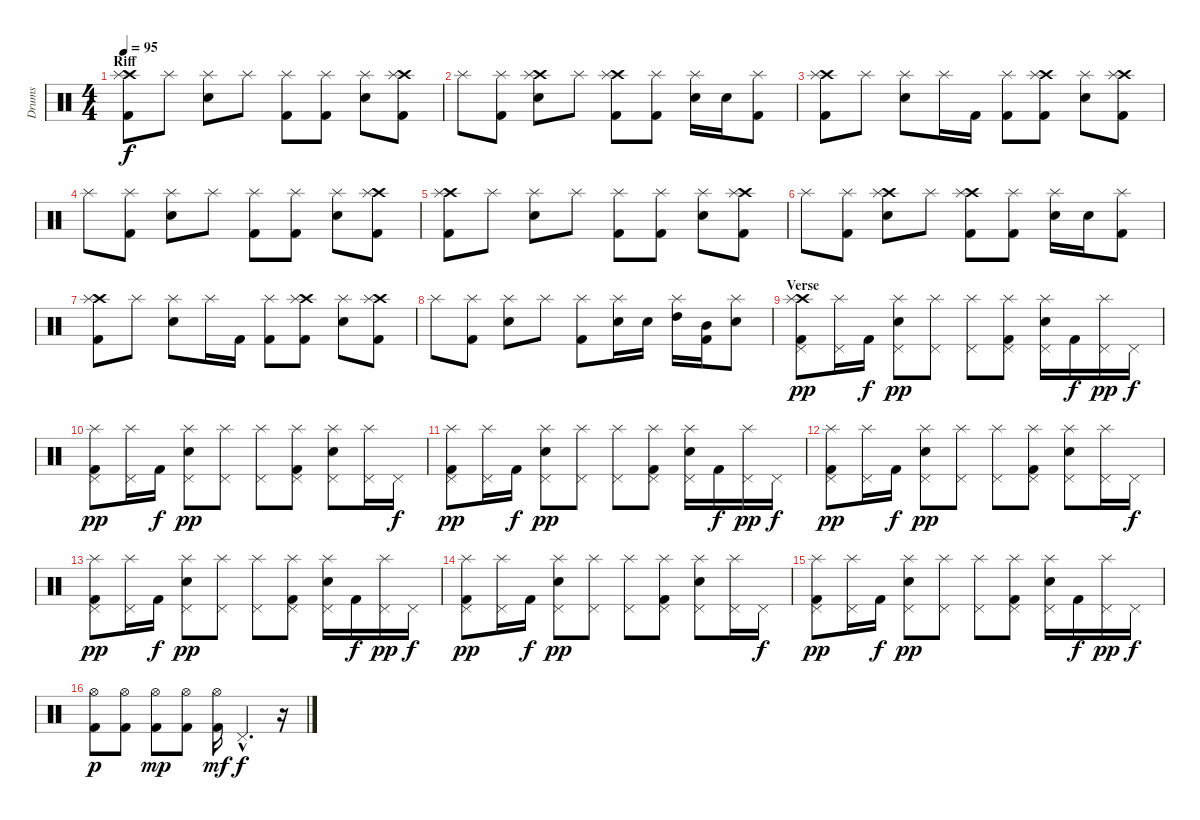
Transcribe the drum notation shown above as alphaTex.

\track ("Drums" "Drums") {instrument percussion}
\staff {score}
\articulation defaults
\ts (4 4)
\section ("" "Riff")
\tempo 95
\clef neutral
\ks c
("Crash high (hit)" "Splash (hit)" "Kick (hit) 2").8{dy f} "Splash (hit)".8 ("Splash (hit)" "Electric Snare (hit)").8 "Splash (hit)".8 ("Splash (hit)" "Kick (hit) 2").8 ("Splash (hit)" "Kick (hit) 2").8 ("Splash (hit)" "Electric Snare (hit)").8 ("Crash high (hit)" "Splash (hit)" "Kick (hit) 2").8 |
"Splash (hit)".8 ("Splash (hit)" "Kick (hit) 2").8 ("Crash high (hit)" "Splash (hit)" "Electric Snare (hit)").8 "Splash (hit)".8 ("Crash high (hit)" "Splash (hit)" "Kick (hit) 2").8 ("Splash (hit)" "Kick (hit) 2").8 ("Splash (hit)" "Electric Snare (hit)").16 "Electric Snare (hit)".16 ("Splash (hit)" "Kick (hit) 2").8 |
("Crash high (hit)" "Splash (hit)" "Kick (hit) 2").8 "Splash (hit)".8 ("Splash (hit)" "Electric Snare (hit)").8 "Splash (hit)".16 "Kick (hit) 2".16 ("Splash (hit)" "Kick (hit) 2").8 ("Crash high (hit)" "Splash (hit)" "Kick (hit) 2").8 ("Splash (hit)" "Electric Snare (hit)").8 ("Crash high (hit)" "Splash (hit)" "Kick (hit) 2").8 |
"Splash (hit)".8 ("Splash (hit)" "Kick (hit) 2").8 ("Splash (hit)" "Electric Snare (hit)").8 "Splash (hit)".8 ("Splash (hit)" "Kick (hit) 2").8 ("Splash (hit)" "Kick (hit) 2").8 ("Splash (hit)" "Electric Snare (hit)").8 ("Crash high (hit)" "Splash (hit)" "Kick (hit) 2").8 |
("Crash high (hit)" "Splash (hit)" "Kick (hit) 2").8 "Splash (hit)".8 ("Splash (hit)" "Electric Snare (hit)").8 "Splash (hit)".8 ("Splash (hit)" "Kick (hit) 2").8 ("Splash (hit)" "Kick (hit) 2").8 ("Splash (hit)" "Electric Snare (hit)").8 ("Crash high (hit)" "Splash (hit)" "Kick (hit) 2").8 |
"Splash (hit)".8 ("Splash (hit)" "Kick (hit) 2").8 ("Crash high (hit)" "Splash (hit)" "Electric Snare (hit)").8 "Splash (hit)".8 ("Crash high (hit)" "Splash (hit)" "Kick (hit) 2").8 ("Splash (hit)" "Kick (hit) 2").8 ("Splash (hit)" "Electric Snare (hit)").16 "Electric Snare (hit)".16 ("Splash (hit)" "Kick (hit) 2").8 |
("Crash high (hit)" "Splash (hit)" "Kick (hit) 2").8 "Splash (hit)".8 ("Splash (hit)" "Electric Snare (hit)").8 "Splash (hit)".16 "Kick (hit) 2".16 ("Splash (hit)" "Kick (hit) 2").8 ("Crash high (hit)" "Splash (hit)" "Kick (hit) 2").8 ("Splash (hit)" "Electric Snare (hit)").8 ("Crash high (hit)" "Splash (hit)" "Kick (hit) 2").8 |
"Splash (hit)".8 ("Splash (hit)" "Kick (hit) 2").8 ("Splash (hit)" "Electric Snare (hit)").8 "Splash (hit)".8 ("Splash (hit)" "Kick (hit) 2").8 ("Splash (hit)" "Electric Snare (hit)").16 "Electric Snare (hit)".16 ("Splash (hit)" "High Tom (hit)").16 ("Mid Tom (hit)" "Kick (hit) 2").16 ("Splash (hit)" "Electric Snare (hit)").8 |
\section ("" "Verse")
("Crash high (hit)" "Pedal Hi-Hat (hit)" "Splash (hit)" "Kick (hit) 2").8{dy pp} ("Pedal Hi-Hat (hit)" "Splash (hit)").16 "Kick (hit) 2".16{dy f} ("Pedal Hi-Hat (hit)" "Electric Snare (hit)" "Splash (hit)").8{dy pp} ("Pedal Hi-Hat (hit)" "Splash (hit)").8 ("Pedal Hi-Hat (hit)" "Splash (hit)").8 ("Pedal Hi-Hat (hit)" "Splash (hit)" "Kick (hit) 2").8 ("Pedal Hi-Hat (hit)" "Electric Snare (hit)" "Splash (hit)").16 "Kick (hit) 2".16{dy f} ("Pedal Hi-Hat (hit)" "Splash (hit)").16{dy pp} "Pedal Hi-Hat (hit)".16{dy f} |
("Pedal Hi-Hat (hit)" "Splash (hit)" "Kick (hit) 2").8{dy pp} ("Pedal Hi-Hat (hit)" "Splash (hit)").16 "Kick (hit) 2".16{dy f} ("Pedal Hi-Hat (hit)" "Electric Snare (hit)" "Splash (hit)").8{dy pp} ("Pedal Hi-Hat (hit)" "Splash (hit)").8 ("Pedal Hi-Hat (hit)" "Splash (hit)").8 ("Pedal Hi-Hat (hit)" "Splash (hit)" "Kick (hit) 2").8 ("Pedal Hi-Hat (hit)" "Electric Snare (hit)" "Splash (hit)").8 ("Pedal Hi-Hat (hit)" "Splash (hit)").16 "Pedal Hi-Hat (hit)".16{dy f} |
("Pedal Hi-Hat (hit)" "Splash (hit)" "Kick (hit) 2").8{dy pp} ("Pedal Hi-Hat (hit)" "Splash (hit)").16 "Kick (hit) 2".16{dy f} ("Pedal Hi-Hat (hit)" "Electric Snare (hit)" "Splash (hit)").8{dy pp} ("Pedal Hi-Hat (hit)" "Splash (hit)").8 ("Pedal Hi-Hat (hit)" "Splash (hit)").8 ("Pedal Hi-Hat (hit)" "Splash (hit)" "Kick (hit) 2").8 ("Pedal Hi-Hat (hit)" "Electric Snare (hit)" "Splash (hit)").16 "Kick (hit) 2".16{dy f} ("Pedal Hi-Hat (hit)" "Splash (hit)").16{dy pp} "Pedal Hi-Hat (hit)".16{dy f} |
("Pedal Hi-Hat (hit)" "Splash (hit)" "Kick (hit) 2").8{dy pp} ("Pedal Hi-Hat (hit)" "Splash (hit)").16 "Kick (hit) 2".16{dy f} ("Pedal Hi-Hat (hit)" "Electric Snare (hit)" "Splash (hit)").8{dy pp} ("Pedal Hi-Hat (hit)" "Splash (hit)").8 ("Pedal Hi-Hat (hit)" "Splash (hit)").8 ("Pedal Hi-Hat (hit)" "Splash (hit)" "Kick (hit) 2").8 ("Pedal Hi-Hat (hit)" "Electric Snare (hit)" "Splash (hit)").8 ("Pedal Hi-Hat (hit)" "Splash (hit)").16 "Pedal Hi-Hat (hit)".16{dy f} |
("Pedal Hi-Hat (hit)" "Splash (hit)" "Kick (hit) 2").8{dy pp} ("Pedal Hi-Hat (hit)" "Splash (hit)").16 "Kick (hit) 2".16{dy f} ("Pedal Hi-Hat (hit)" "Electric Snare (hit)" "Splash (hit)").8{dy pp} ("Pedal Hi-Hat (hit)" "Splash (hit)").8 ("Pedal Hi-Hat (hit)" "Splash (hit)").8 ("Pedal Hi-Hat (hit)" "Splash (hit)" "Kick (hit) 2").8 ("Pedal Hi-Hat (hit)" "Electric Snare (hit)" "Splash (hit)").16 "Kick (hit) 2".16{dy f} ("Pedal Hi-Hat (hit)" "Splash (hit)").16{dy pp} "Pedal Hi-Hat (hit)".16{dy f} |
("Pedal Hi-Hat (hit)" "Splash (hit)" "Kick (hit) 2").8{dy pp} ("Pedal Hi-Hat (hit)" "Splash (hit)").16 "Kick (hit) 2".16{dy f} ("Pedal Hi-Hat (hit)" "Electric Snare (hit)" "Splash (hit)").8{dy pp} ("Pedal Hi-Hat (hit)" "Splash (hit)").8 ("Pedal Hi-Hat (hit)" "Splash (hit)").8 ("Pedal Hi-Hat (hit)" "Splash (hit)" "Kick (hit) 2").8 ("Pedal Hi-Hat (hit)" "Electric Snare (hit)" "Splash (hit)").8 ("Pedal Hi-Hat (hit)" "Splash (hit)").16 "Pedal Hi-Hat (hit)".16{dy f} |
("Pedal Hi-Hat (hit)" "Splash (hit)" "Kick (hit) 2").8{dy pp} ("Pedal Hi-Hat (hit)" "Splash (hit)").16 "Kick (hit) 2".16{dy f} ("Pedal Hi-Hat (hit)" "Electric Snare (hit)" "Splash (hit)").8{dy pp} ("Pedal Hi-Hat (hit)" "Splash (hit)").8 ("Pedal Hi-Hat (hit)" "Splash (hit)").8 ("Pedal Hi-Hat (hit)" "Splash (hit)" "Kick (hit) 2").8 ("Pedal Hi-Hat (hit)" "Electric Snare (hit)" "Splash (hit)").16 "Kick (hit) 2".16{dy f} ("Pedal Hi-Hat (hit)" "Splash (hit)").16{dy pp} "Pedal Hi-Hat (hit)".16{dy f} |
("Hi-Hat (open)" "Kick (hit) 2").8{dy p} ("Hi-Hat (open)" "Kick (hit) 2").8 ("Hi-Hat (open)" "Kick (hit) 2").8{dy mp} ("Hi-Hat (open)" "Kick (hit) 2").8 ("Hi-Hat (open)" "Kick (hit) 2").16{dy mf} "Pedal Hi-Hat (hit)"{hac}.4{d dy f} r.16
